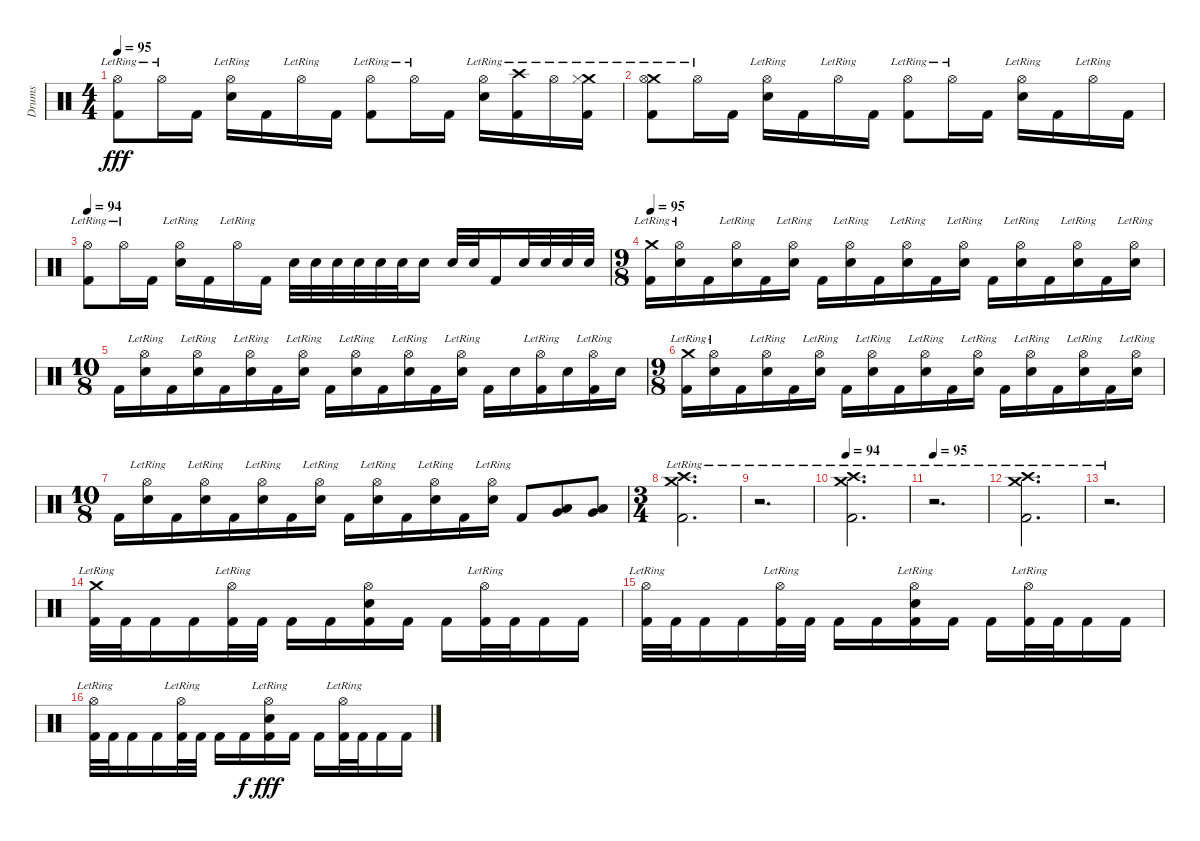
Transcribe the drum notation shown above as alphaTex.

\track ("Drums" "Drums") {instrument percussion}
\staff {score}
\articulation defaults
\ts (4 4)
\tempo 95
\clef neutral
\ks c
("Hi-Hat (open)"{lr} "Kick (hit) 2").8{dy fff} "Hi-Hat (open)"{lr}.16 "Kick (hit) 2".16 ("Hi-Hat (open)"{lr} "Electric Snare (hit)").16 "Kick (hit) 2".16 "Hi-Hat (open)"{lr}.16 "Kick (hit) 2".16 ("Hi-Hat (open)"{lr} "Kick (hit) 2").8 "Hi-Hat (open)"{lr}.16 "Kick (hit) 2".16 ("Hi-Hat (open)"{lr} "Electric Snare (hit)").16 ("Crash high (hit)"{lr} "Kick (hit) 2").16 "Hi-Hat (open)"{lr}.16 ("Crash medium (hit)"{lr} "Hi-Hat (closed)" "Kick (hit) 2").16 |
("Crash medium (hit)"{lr} "Hi-Hat (open)"{lr} "Kick (hit) 2").8 "Hi-Hat (open)"{lr}.16 "Kick (hit) 2".16 ("Hi-Hat (open)"{lr} "Electric Snare (hit)").16 "Kick (hit) 2".16 "Hi-Hat (open)"{lr}.16 "Kick (hit) 2".16 ("Hi-Hat (open)"{lr} "Kick (hit) 2").8 "Hi-Hat (open)"{lr}.16 "Kick (hit) 2".16 ("Hi-Hat (open)"{lr} "Electric Snare (hit)").16 "Kick (hit) 2".16 "Hi-Hat (open)"{lr}.16 "Kick (hit) 2".16 |
\tempo 94
("Hi-Hat (open)"{lr} "Kick (hit) 2").8 "Hi-Hat (open)"{lr}.16 "Kick (hit) 2".16 ("Hi-Hat (open)"{lr} "Electric Snare (hit)").16 "Kick (hit) 2".16 "Hi-Hat (open)"{lr}.16 "Kick (hit) 2".16 "Electric Snare (hit)".32 "Electric Snare (hit)".32 "Electric Snare (hit)".32 "Electric Snare (hit)".32 "Electric Snare (hit)".32 "Electric Snare (hit)".32 "Electric Snare (hit)".16 "Electric Snare (hit)".32 "Electric Snare (hit)".32 "Kick (hit) 2".16 "Electric Snare (hit)".32 "Electric Snare (hit)".32 "Electric Snare (hit)".32 "Electric Snare (hit)".32 |
\ts (9 8)
\tempo 95
("Crash medium (hit)"{lr} "Kick (hit) 2").16 ("Hi-Hat (open)"{lr} "Electric Snare (hit)").16 "Kick (hit) 2".16 ("Hi-Hat (open)"{lr} "Electric Snare (hit)").16 "Kick (hit) 2".16 ("Hi-Hat (open)"{lr} "Electric Snare (hit)").16 "Kick (hit) 2".16 ("Hi-Hat (open)"{lr} "Electric Snare (hit)").16 "Kick (hit) 2".16 ("Hi-Hat (open)"{lr} "Electric Snare (hit)").16 "Kick (hit) 2".16 ("Hi-Hat (open)"{lr} "Electric Snare (hit)").16 "Kick (hit) 2".16 ("Hi-Hat (open)"{lr} "Electric Snare (hit)").16 "Kick (hit) 2".16 ("Hi-Hat (open)"{lr} "Electric Snare (hit)").16 "Kick (hit) 2".16 ("Hi-Hat (open)"{lr} "Electric Snare (hit)").16 |
\ts (10 8)
"Kick (hit) 2".16 ("Hi-Hat (open)"{lr} "Electric Snare (hit)").16 "Kick (hit) 2".16 ("Hi-Hat (open)"{lr} "Electric Snare (hit)").16 "Kick (hit) 2".16 ("Hi-Hat (open)"{lr} "Electric Snare (hit)").16 "Kick (hit) 2".16 ("Hi-Hat (open)"{lr} "Electric Snare (hit)").16 "Kick (hit) 2".16 ("Hi-Hat (open)"{lr} "Electric Snare (hit)").16 "Kick (hit) 2".16 ("Hi-Hat (open)"{lr} "Electric Snare (hit)").16 "Kick (hit) 2".16 ("Hi-Hat (open)"{lr} "Electric Snare (hit)").16 "Kick (hit) 2".16 "Electric Snare (hit)".16 ("Hi-Hat (open)"{lr} "Kick (hit) 2").16 "Electric Snare (hit)".16 ("Hi-Hat (open)"{lr} "Kick (hit) 2").16 "Electric Snare (hit)".16 |
\ts (9 8)
("Crash medium (hit)"{lr} "Kick (hit) 2").16 ("Hi-Hat (open)"{lr} "Electric Snare (hit)").16 "Kick (hit) 2".16 ("Hi-Hat (open)"{lr} "Electric Snare (hit)").16 "Kick (hit) 2".16 ("Hi-Hat (open)"{lr} "Electric Snare (hit)").16 "Kick (hit) 2".16 ("Hi-Hat (open)"{lr} "Electric Snare (hit)").16 "Kick (hit) 2".16 ("Hi-Hat (open)"{lr} "Electric Snare (hit)").16 "Kick (hit) 2".16 ("Hi-Hat (open)"{lr} "Electric Snare (hit)").16 "Kick (hit) 2".16 ("Hi-Hat (open)"{lr} "Electric Snare (hit)").16 "Kick (hit) 2".16 ("Hi-Hat (open)"{lr} "Electric Snare (hit)").16 "Kick (hit) 2".16 ("Hi-Hat (open)"{lr} "Electric Snare (hit)").16 |
\ts (10 8)
"Kick (hit) 2".16 ("Hi-Hat (open)"{lr} "Electric Snare (hit)").16 "Kick (hit) 2".16 ("Hi-Hat (open)"{lr} "Electric Snare (hit)").16 "Kick (hit) 2".16 ("Hi-Hat (open)"{lr} "Electric Snare (hit)").16 "Kick (hit) 2".16 ("Hi-Hat (open)"{lr} "Electric Snare (hit)").16 "Kick (hit) 2".16 ("Hi-Hat (open)"{lr} "Electric Snare (hit)").16 "Kick (hit) 2".16 ("Hi-Hat (open)"{lr} "Electric Snare (hit)").16 "Kick (hit) 2".16 ("Hi-Hat (open)"{lr} "Electric Snare (hit)").16 "Kick (hit) 2".8 ("Low Floor Tom (hit)" "Very Low Tom (hit)").8 ("Low Floor Tom (hit)" "Very Low Tom (hit)").8 |
\ts (3 4)
("Crash high (hit)"{lr} "Crash medium (hit)"{lr} "Kick (hit) 2").2{d} |
r.2{d} |
\tempo 94
("Crash high (hit)"{lr} "Crash medium (hit)"{lr} "Kick (hit) 2").2{d} |
\tempo 95
r.2{d} |
("Crash high (hit)"{lr} "Crash medium (hit)"{lr} "Kick (hit) 2").2{d} |
r.2{d} |
("Crash medium (hit)"{lr} "Kick (hit) 2").32 "Kick (hit) 2".32 "Kick (hit) 2".16 "Kick (hit) 2".16 ("Hi-Hat (open)"{lr} "Kick (hit) 2").32 "Kick (hit) 2".32 "Kick (hit) 2".16 "Kick (hit) 2".16 ("Hi-Hat (open)" "Electric Snare (hit)" "Kick (hit) 2").16 "Kick (hit) 2".16 "Kick (hit) 2".16 ("Hi-Hat (open)"{lr} "Kick (hit) 2").32 "Kick (hit) 2".32 "Kick (hit) 2".16 "Kick (hit) 2".16 |
("Hi-Hat (open)"{lr} "Kick (hit) 2").32 "Kick (hit) 2".32 "Kick (hit) 2".16 "Kick (hit) 2".16 ("Hi-Hat (open)"{lr} "Kick (hit) 2").32 "Kick (hit) 2".32 "Kick (hit) 2".16 "Kick (hit) 2".16 ("Hi-Hat (open)"{lr} "Electric Snare (hit)" "Kick (hit) 2").16 "Kick (hit) 2".16 "Kick (hit) 2".16 ("Hi-Hat (open)"{lr} "Kick (hit) 2").32 "Kick (hit) 2".32 "Kick (hit) 2".16 "Kick (hit) 2".16 |
("Hi-Hat (open)"{lr} "Kick (hit) 2").32 "Kick (hit) 2".32 "Kick (hit) 2".16 "Kick (hit) 2".16 ("Hi-Hat (open)"{lr} "Kick (hit) 2").32 "Kick (hit) 2".32 "Kick (hit) 2".16 "Kick (hit) 2".16{dy f} ("Hi-Hat (open)"{lr} "Electric Snare (hit)" "Kick (hit) 2").16{dy fff} "Kick (hit) 2".16 "Kick (hit) 2".16 ("Hi-Hat (open)"{lr} "Kick (hit) 2").32 "Kick (hit) 2".32 "Kick (hit) 2".16 "Kick (hit) 2".16
